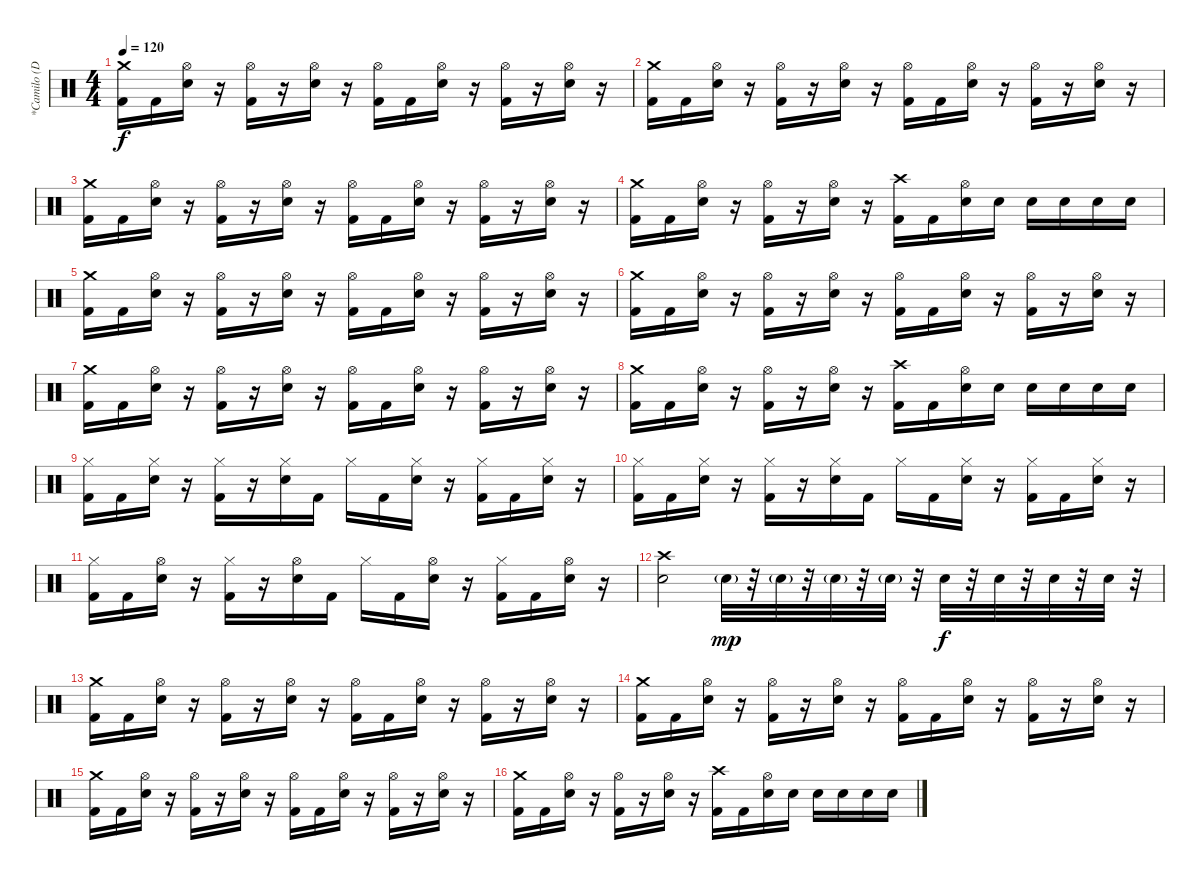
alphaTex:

\track ("*Camilo (Drums)" "*Camilo (D") {instrument percussion}
\staff {score}
\articulation defaults
\ts (4 4)
\tempo 120
\clef neutral
\ks c
("Crash medium (hit)" "Kick (hit) 2").16{dy f} "Kick (hit) 2".16 ("Hi-Hat (open)" "Electric Snare (hit)").16 r.16 ("Hi-Hat (open)" "Kick (hit) 2").16 r.16 ("Hi-Hat (open)" "Electric Snare (hit)").16 r.16 ("Hi-Hat (open)" "Kick (hit) 2").16 "Kick (hit) 2".16 ("Hi-Hat (open)" "Electric Snare (hit)").16 r.16 ("Hi-Hat (open)" "Kick (hit) 2").16 r.16 ("Hi-Hat (open)" "Electric Snare (hit)").16 r.16 |
("Crash medium (hit)" "Kick (hit) 2").16 "Kick (hit) 2".16 ("Hi-Hat (open)" "Electric Snare (hit)").16 r.16 ("Hi-Hat (open)" "Kick (hit) 2").16 r.16 ("Hi-Hat (open)" "Electric Snare (hit)").16 r.16 ("Hi-Hat (open)" "Kick (hit) 2").16 "Kick (hit) 2".16 ("Hi-Hat (open)" "Electric Snare (hit)").16 r.16 ("Hi-Hat (open)" "Kick (hit) 2").16 r.16 ("Hi-Hat (open)" "Electric Snare (hit)").16 r.16 |
("Crash medium (hit)" "Kick (hit) 2").16 "Kick (hit) 2".16 ("Hi-Hat (open)" "Electric Snare (hit)").16 r.16 ("Hi-Hat (open)" "Kick (hit) 2").16 r.16 ("Hi-Hat (open)" "Electric Snare (hit)").16 r.16 ("Hi-Hat (open)" "Kick (hit) 2").16 "Kick (hit) 2".16 ("Hi-Hat (open)" "Electric Snare (hit)").16 r.16 ("Hi-Hat (open)" "Kick (hit) 2").16 r.16 ("Hi-Hat (open)" "Electric Snare (hit)").16 r.16 |
("Crash medium (hit)" "Kick (hit) 2").16 "Kick (hit) 2".16 ("Hi-Hat (open)" "Electric Snare (hit)").16 r.16 ("Hi-Hat (open)" "Kick (hit) 2").16 r.16 ("Hi-Hat (open)" "Electric Snare (hit)").16 r.16 ("Crash high (hit)" "Kick (hit) 2").16 "Kick (hit) 2".16 ("Hi-Hat (open)" "Electric Snare (hit)").16 "Electric Snare (hit)".16 "Electric Snare (hit)".16 "Electric Snare (hit)".16 "Electric Snare (hit)".16 "Electric Snare (hit)".16 |
("Crash medium (hit)" "Kick (hit) 2").16 "Kick (hit) 2".16 ("Hi-Hat (open)" "Electric Snare (hit)").16 r.16 ("Hi-Hat (open)" "Kick (hit) 2").16 r.16 ("Hi-Hat (open)" "Electric Snare (hit)").16 r.16 ("Hi-Hat (open)" "Kick (hit) 2").16 "Kick (hit) 2".16 ("Hi-Hat (open)" "Electric Snare (hit)").16 r.16 ("Hi-Hat (open)" "Kick (hit) 2").16 r.16 ("Hi-Hat (open)" "Electric Snare (hit)").16 r.16 |
("Crash medium (hit)" "Kick (hit) 2").16 "Kick (hit) 2".16 ("Hi-Hat (open)" "Electric Snare (hit)").16 r.16 ("Hi-Hat (open)" "Kick (hit) 2").16 r.16 ("Hi-Hat (open)" "Electric Snare (hit)").16 r.16 ("Hi-Hat (open)" "Kick (hit) 2").16 "Kick (hit) 2".16 ("Hi-Hat (open)" "Electric Snare (hit)").16 r.16 ("Hi-Hat (open)" "Kick (hit) 2").16 r.16 ("Hi-Hat (open)" "Electric Snare (hit)").16 r.16 |
("Crash medium (hit)" "Kick (hit) 2").16 "Kick (hit) 2".16 ("Hi-Hat (open)" "Electric Snare (hit)").16 r.16 ("Hi-Hat (open)" "Kick (hit) 2").16 r.16 ("Hi-Hat (open)" "Electric Snare (hit)").16 r.16 ("Hi-Hat (open)" "Kick (hit) 2").16 "Kick (hit) 2".16 ("Hi-Hat (open)" "Electric Snare (hit)").16 r.16 ("Hi-Hat (open)" "Kick (hit) 2").16 r.16 ("Hi-Hat (open)" "Electric Snare (hit)").16 r.16 |
("Crash medium (hit)" "Kick (hit) 2").16 "Kick (hit) 2".16 ("Hi-Hat (open)" "Electric Snare (hit)").16 r.16 ("Hi-Hat (open)" "Kick (hit) 2").16 r.16 ("Hi-Hat (open)" "Electric Snare (hit)").16 r.16 ("Crash high (hit)" "Kick (hit) 2").16 "Kick (hit) 2".16 ("Hi-Hat (open)" "Electric Snare (hit)").16 "Electric Snare (hit)".16 "Electric Snare (hit)".16 "Electric Snare (hit)".16 "Electric Snare (hit)".16 "Electric Snare (hit)".16 |
("Hi-Hat (closed)" "Kick (hit) 2").16 "Kick (hit) 2".16 ("Hi-Hat (closed)" "Electric Snare (hit)").16 r.16 ("Hi-Hat (closed)" "Kick (hit) 2").16 r.16 ("Hi-Hat (closed)" "Electric Snare (hit)").16 "Kick (hit) 2".16 "Hi-Hat (closed)".16 "Kick (hit) 2".16 ("Hi-Hat (closed)" "Electric Snare (hit)").16 r.16 ("Hi-Hat (closed)" "Kick (hit) 2").16 "Kick (hit) 2".16 ("Hi-Hat (closed)" "Electric Snare (hit)").16 r.16 |
("Hi-Hat (closed)" "Kick (hit) 2").16 "Kick (hit) 2".16 ("Hi-Hat (closed)" "Electric Snare (hit)").16 r.16 ("Hi-Hat (closed)" "Kick (hit) 2").16 r.16 ("Hi-Hat (closed)" "Electric Snare (hit)").16 "Kick (hit) 2".16 "Hi-Hat (closed)".16 "Kick (hit) 2".16 ("Hi-Hat (closed)" "Electric Snare (hit)").16 r.16 ("Hi-Hat (closed)" "Kick (hit) 2").16 "Kick (hit) 2".16 ("Hi-Hat (closed)" "Electric Snare (hit)").16 r.16 |
("Hi-Hat (closed)" "Kick (hit) 2").16 "Kick (hit) 2".16 ("Hi-Hat (open)" "Electric Snare (hit)").16 r.16 ("Hi-Hat (closed)" "Kick (hit) 2").16 r.16 ("Hi-Hat (open)" "Electric Snare (hit)").16 "Kick (hit) 2".16 "Hi-Hat (closed)".16 "Kick (hit) 2".16 ("Hi-Hat (open)" "Electric Snare (hit)").16 r.16 ("Hi-Hat (closed)" "Kick (hit) 2").16 "Kick (hit) 2".16 ("Hi-Hat (open)" "Electric Snare (hit)").16 r.16 |
("Crash high (hit)" "Electric Snare (hit)").2 "Electric Snare (hit)"{g}.32{dy mp} r.32 "Electric Snare (hit)"{g}.32 r.32 "Electric Snare (hit)"{g}.32 r.32 "Electric Snare (hit)"{g}.32 r.32 "Electric Snare (hit)".32{dy f} r.32 "Electric Snare (hit)".32 r.32 "Electric Snare (hit)".32 r.32 "Electric Snare (hit)".32 r.32 |
("Crash medium (hit)" "Kick (hit) 2").16 "Kick (hit) 2".16 ("Hi-Hat (open)" "Electric Snare (hit)").16 r.16 ("Hi-Hat (open)" "Kick (hit) 2").16 r.16 ("Hi-Hat (open)" "Electric Snare (hit)").16 r.16 ("Hi-Hat (open)" "Kick (hit) 2").16 "Kick (hit) 2".16 ("Hi-Hat (open)" "Electric Snare (hit)").16 r.16 ("Hi-Hat (open)" "Kick (hit) 2").16 r.16 ("Hi-Hat (open)" "Electric Snare (hit)").16 r.16 |
("Crash medium (hit)" "Kick (hit) 2").16 "Kick (hit) 2".16 ("Hi-Hat (open)" "Electric Snare (hit)").16 r.16 ("Hi-Hat (open)" "Kick (hit) 2").16 r.16 ("Hi-Hat (open)" "Electric Snare (hit)").16 r.16 ("Hi-Hat (open)" "Kick (hit) 2").16 "Kick (hit) 2".16 ("Hi-Hat (open)" "Electric Snare (hit)").16 r.16 ("Hi-Hat (open)" "Kick (hit) 2").16 r.16 ("Hi-Hat (open)" "Electric Snare (hit)").16 r.16 |
("Crash medium (hit)" "Kick (hit) 2").16 "Kick (hit) 2".16 ("Hi-Hat (open)" "Electric Snare (hit)").16 r.16 ("Hi-Hat (open)" "Kick (hit) 2").16 r.16 ("Hi-Hat (open)" "Electric Snare (hit)").16 r.16 ("Hi-Hat (open)" "Kick (hit) 2").16 "Kick (hit) 2".16 ("Hi-Hat (open)" "Electric Snare (hit)").16 r.16 ("Hi-Hat (open)" "Kick (hit) 2").16 r.16 ("Hi-Hat (open)" "Electric Snare (hit)").16 r.16 |
("Crash medium (hit)" "Kick (hit) 2").16 "Kick (hit) 2".16 ("Hi-Hat (open)" "Electric Snare (hit)").16 r.16 ("Hi-Hat (open)" "Kick (hit) 2").16 r.16 ("Hi-Hat (open)" "Electric Snare (hit)").16 r.16 ("Crash high (hit)" "Kick (hit) 2").16 "Kick (hit) 2".16 ("Hi-Hat (open)" "Electric Snare (hit)").16 "Electric Snare (hit)".16 "Electric Snare (hit)".16 "Electric Snare (hit)".16 "Electric Snare (hit)".16 "Electric Snare (hit)".16
